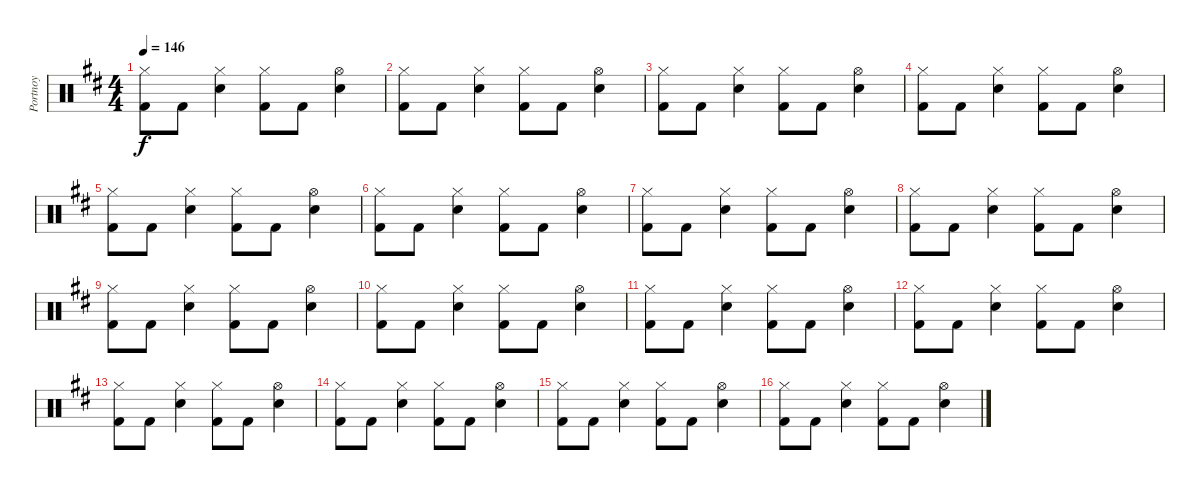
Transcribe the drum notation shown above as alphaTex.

\track ("Portnoy" "Portnoy") {instrument percussion}
\staff {score}
\articulation defaults
\ts (4 4)
\tempo 146
\clef neutral
\ks d
("Hi-Hat (closed)" "Kick (hit) 2").8{dy f} "Kick (hit) 2".8 ("Hi-Hat (closed)" "Electric Snare (hit)").4 ("Hi-Hat (closed)" "Kick (hit) 2").8 "Kick (hit) 2".8 ("Hi-Hat (open)" "Electric Snare (hit)").4 |
("Hi-Hat (closed)" "Kick (hit) 2").8 "Kick (hit) 2".8 ("Hi-Hat (closed)" "Electric Snare (hit)").4 ("Hi-Hat (closed)" "Kick (hit) 2").8 "Kick (hit) 2".8 ("Hi-Hat (open)" "Electric Snare (hit)").4 |
("Hi-Hat (closed)" "Kick (hit) 2").8 "Kick (hit) 2".8 ("Hi-Hat (closed)" "Electric Snare (hit)").4 ("Hi-Hat (closed)" "Kick (hit) 2").8 "Kick (hit) 2".8 ("Hi-Hat (open)" "Electric Snare (hit)").4 |
("Hi-Hat (closed)" "Kick (hit) 2").8 "Kick (hit) 2".8 ("Hi-Hat (closed)" "Electric Snare (hit)").4 ("Hi-Hat (closed)" "Kick (hit) 2").8 "Kick (hit) 2".8 ("Hi-Hat (open)" "Electric Snare (hit)").4 |
("Hi-Hat (closed)" "Kick (hit) 2").8 "Kick (hit) 2".8 ("Hi-Hat (closed)" "Electric Snare (hit)").4 ("Hi-Hat (closed)" "Kick (hit) 2").8 "Kick (hit) 2".8 ("Hi-Hat (open)" "Electric Snare (hit)").4 |
("Hi-Hat (closed)" "Kick (hit) 2").8 "Kick (hit) 2".8 ("Hi-Hat (closed)" "Electric Snare (hit)").4 ("Hi-Hat (closed)" "Kick (hit) 2").8 "Kick (hit) 2".8 ("Hi-Hat (open)" "Electric Snare (hit)").4 |
("Hi-Hat (closed)" "Kick (hit) 2").8 "Kick (hit) 2".8 ("Hi-Hat (closed)" "Electric Snare (hit)").4 ("Hi-Hat (closed)" "Kick (hit) 2").8 "Kick (hit) 2".8 ("Hi-Hat (open)" "Electric Snare (hit)").4 |
("Hi-Hat (closed)" "Kick (hit) 2").8 "Kick (hit) 2".8 ("Hi-Hat (closed)" "Electric Snare (hit)").4 ("Hi-Hat (closed)" "Kick (hit) 2").8 "Kick (hit) 2".8 ("Hi-Hat (open)" "Electric Snare (hit)").4 |
("Hi-Hat (closed)" "Kick (hit) 2").8 "Kick (hit) 2".8 ("Hi-Hat (closed)" "Electric Snare (hit)").4 ("Hi-Hat (closed)" "Kick (hit) 2").8 "Kick (hit) 2".8 ("Hi-Hat (open)" "Electric Snare (hit)").4 |
("Hi-Hat (closed)" "Kick (hit) 2").8 "Kick (hit) 2".8 ("Hi-Hat (closed)" "Electric Snare (hit)").4 ("Hi-Hat (closed)" "Kick (hit) 2").8 "Kick (hit) 2".8 ("Hi-Hat (open)" "Electric Snare (hit)").4 |
("Hi-Hat (closed)" "Kick (hit) 2").8 "Kick (hit) 2".8 ("Hi-Hat (closed)" "Electric Snare (hit)").4 ("Hi-Hat (closed)" "Kick (hit) 2").8 "Kick (hit) 2".8 ("Hi-Hat (open)" "Electric Snare (hit)").4 |
("Hi-Hat (closed)" "Kick (hit) 2").8 "Kick (hit) 2".8 ("Hi-Hat (closed)" "Electric Snare (hit)").4 ("Hi-Hat (closed)" "Kick (hit) 2").8 "Kick (hit) 2".8 ("Hi-Hat (open)" "Electric Snare (hit)").4 |
("Hi-Hat (closed)" "Kick (hit) 2").8 "Kick (hit) 2".8 ("Hi-Hat (closed)" "Electric Snare (hit)").4 ("Hi-Hat (closed)" "Kick (hit) 2").8 "Kick (hit) 2".8 ("Hi-Hat (open)" "Electric Snare (hit)").4 |
("Hi-Hat (closed)" "Kick (hit) 2").8 "Kick (hit) 2".8 ("Hi-Hat (closed)" "Electric Snare (hit)").4 ("Hi-Hat (closed)" "Kick (hit) 2").8 "Kick (hit) 2".8 ("Hi-Hat (open)" "Electric Snare (hit)").4 |
("Hi-Hat (closed)" "Kick (hit) 2").8 "Kick (hit) 2".8 ("Hi-Hat (closed)" "Electric Snare (hit)").4 ("Hi-Hat (closed)" "Kick (hit) 2").8 "Kick (hit) 2".8 ("Hi-Hat (open)" "Electric Snare (hit)").4 |
("Hi-Hat (closed)" "Kick (hit) 2").8 "Kick (hit) 2".8 ("Hi-Hat (closed)" "Electric Snare (hit)").4 ("Hi-Hat (closed)" "Kick (hit) 2").8 "Kick (hit) 2".8 ("Hi-Hat (open)" "Electric Snare (hit)").4
